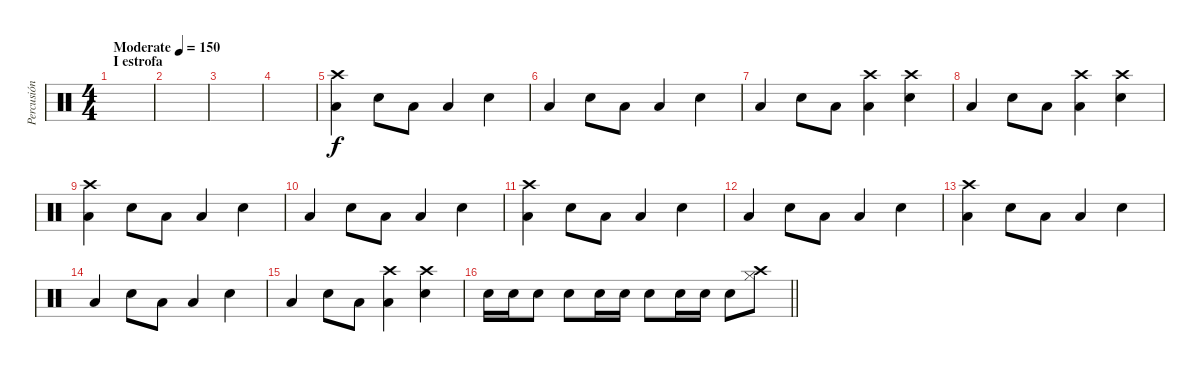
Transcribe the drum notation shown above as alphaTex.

\track ("Percusión" "Percusión") {instrument percussion}
\staff {score}
\articulation defaults
\ts (4 4)
\section ("" "I estrofa")
\tempo (150 "Moderate")
\clef neutral
\ks c
|
|
|
|
("Low Floor Tom (hit)" "Crash high (hit)").4 "Electric Snare (hit)".8 "Low Floor Tom (hit)".8 "Low Floor Tom (hit)".4 "Electric Snare (hit)".4 |
"Low Floor Tom (hit)".4 "Electric Snare (hit)".8 "Low Floor Tom (hit)".8 "Low Floor Tom (hit)".4 "Electric Snare (hit)".4 |
"Low Floor Tom (hit)".4 "Electric Snare (hit)".8 "Low Floor Tom (hit)".8 ("Low Floor Tom (hit)" "Crash high (hit)").4 ("Electric Snare (hit)" "Crash high (hit)").4 |
"Low Floor Tom (hit)".4 "Electric Snare (hit)".8 "Low Floor Tom (hit)".8 ("Low Floor Tom (hit)" "Crash high (hit)").4 ("Electric Snare (hit)" "Crash high (hit)").4 |
("Low Floor Tom (hit)" "Crash high (hit)").4 "Electric Snare (hit)".8 "Low Floor Tom (hit)".8 "Low Floor Tom (hit)".4 "Electric Snare (hit)".4 |
"Low Floor Tom (hit)".4 "Electric Snare (hit)".8 "Low Floor Tom (hit)".8 "Low Floor Tom (hit)".4 "Electric Snare (hit)".4 |
("Low Floor Tom (hit)" "Crash high (hit)").4 "Electric Snare (hit)".8 "Low Floor Tom (hit)".8 "Low Floor Tom (hit)".4 "Electric Snare (hit)".4 |
"Low Floor Tom (hit)".4 "Electric Snare (hit)".8 "Low Floor Tom (hit)".8 "Low Floor Tom (hit)".4 "Electric Snare (hit)".4 |
("Low Floor Tom (hit)" "Crash high (hit)").4 "Electric Snare (hit)".8 "Low Floor Tom (hit)".8 "Low Floor Tom (hit)".4 "Electric Snare (hit)".4 |
"Low Floor Tom (hit)".4 "Electric Snare (hit)".8 "Low Floor Tom (hit)".8 "Low Floor Tom (hit)".4 "Electric Snare (hit)".4 |
"Low Floor Tom (hit)".4 "Electric Snare (hit)".8 "Low Floor Tom (hit)".8 ("Low Floor Tom (hit)" "Crash high (hit)").4 ("Electric Snare (hit)" "Crash high (hit)").4 |
\barLineRight lightlight "Electric Snare (hit)".16 "Electric Snare (hit)".16 "Electric Snare (hit)".8 "Electric Snare (hit)".8 "Electric Snare (hit)".16 "Electric Snare (hit)".16 "Electric Snare (hit)".8 "Electric Snare (hit)".16 "Electric Snare (hit)".16 "Electric Snare (hit)".8
("Hi-Hat (closed)" "Crash high (hit)").8
